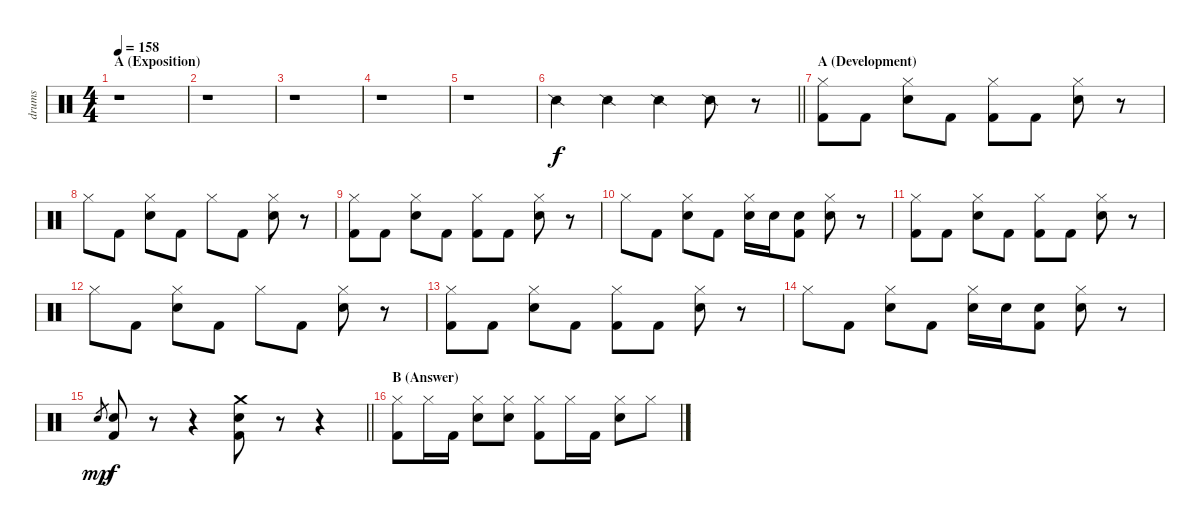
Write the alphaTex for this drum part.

\track ("drums" "drums") {instrument percussion}
\staff {score}
\articulation defaults
\ts (4 4)
\section ("" "A (Exposition)")
\tempo 158
\clef neutral
\ks c
r.1{dy f} |
r.1 |
r.1 |
r.1 |
r.1 |
\barLineRight lightlight "Snare (side stick) 2".4 "Snare (side stick) 2".4 "Snare (side stick) 2".4 "Snare (side stick) 2".8
r.8 |
\section ("" "A (Development)")
("Hi-Hat (closed)" "Kick (hit) 2").8 "Kick (hit) 2".8 ("Hi-Hat (closed)" "Electric Snare (hit)").8 "Kick (hit) 2".8 ("Hi-Hat (closed)" "Kick (hit) 2").8 "Kick (hit) 2".8 ("Hi-Hat (closed)" "Electric Snare (hit)").8 r.8 |
"Hi-Hat (closed)".8 "Kick (hit) 2".8 ("Hi-Hat (closed)" "Electric Snare (hit)").8 "Kick (hit) 2".8 "Hi-Hat (closed)".8 "Kick (hit) 2".8 ("Hi-Hat (closed)" "Electric Snare (hit)").8 r.8 |
("Hi-Hat (closed)" "Kick (hit) 2").8 "Kick (hit) 2".8 ("Hi-Hat (closed)" "Electric Snare (hit)").8 "Kick (hit) 2".8 ("Hi-Hat (closed)" "Kick (hit) 2").8 "Kick (hit) 2".8 ("Hi-Hat (closed)" "Electric Snare (hit)").8 r.8 |
"Hi-Hat (closed)".8 "Kick (hit) 2".8 ("Hi-Hat (closed)" "Electric Snare (hit)").8 "Kick (hit) 2".8 ("Hi-Hat (closed)" "Electric Snare (hit)").16 "Electric Snare (hit)".16 ("Electric Snare (hit)" "Kick (hit) 2").8 ("Hi-Hat (closed)" "Electric Snare (hit)").8 r.8 |
("Hi-Hat (closed)" "Kick (hit) 2").8 "Kick (hit) 2".8 ("Hi-Hat (closed)" "Electric Snare (hit)").8 "Kick (hit) 2".8 ("Hi-Hat (closed)" "Kick (hit) 2").8 "Kick (hit) 2".8 ("Hi-Hat (closed)" "Electric Snare (hit)").8 r.8 |
"Hi-Hat (closed)".8 "Kick (hit) 2".8 ("Hi-Hat (closed)" "Electric Snare (hit)").8 "Kick (hit) 2".8 "Hi-Hat (closed)".8 "Kick (hit) 2".8 ("Hi-Hat (closed)" "Electric Snare (hit)").8 r.8 |
("Hi-Hat (closed)" "Kick (hit) 2").8 "Kick (hit) 2".8 ("Hi-Hat (closed)" "Electric Snare (hit)").8 "Kick (hit) 2".8 ("Hi-Hat (closed)" "Kick (hit) 2").8 "Kick (hit) 2".8 ("Hi-Hat (closed)" "Electric Snare (hit)").8 r.8 |
"Hi-Hat (closed)".8 "Kick (hit) 2".8 ("Hi-Hat (closed)" "Electric Snare (hit)").8 "Kick (hit) 2".8 ("Hi-Hat (closed)" "Electric Snare (hit)").16 "Electric Snare (hit)".16 ("Electric Snare (hit)" "Kick (hit) 2").8 ("Hi-Hat (closed)" "Electric Snare (hit)").8 r.8 |
\barLineRight lightlight "Electric Snare (hit)".8{gr dy mp}
("Electric Snare (hit)" "Kick (hit) 2").8{dy f} r.8 r.4 ("Crash medium (hit)" "Electric Snare (hit)" "Kick (hit) 2").8 r.8 r.4 |
\section ("" "B (Answer)")
("Hi-Hat (closed)" "Kick (hit) 2").8 "Hi-Hat (closed)".16 "Kick (hit) 2".16 ("Hi-Hat (closed)" "Electric Snare (hit)").8 ("Hi-Hat (closed)" "Electric Snare (hit)").8 ("Hi-Hat (closed)" "Kick (hit) 2").8 "Hi-Hat (closed)".16 "Kick (hit) 2".16 ("Hi-Hat (closed)" "Electric Snare (hit)").8 "Hi-Hat (closed)".8
